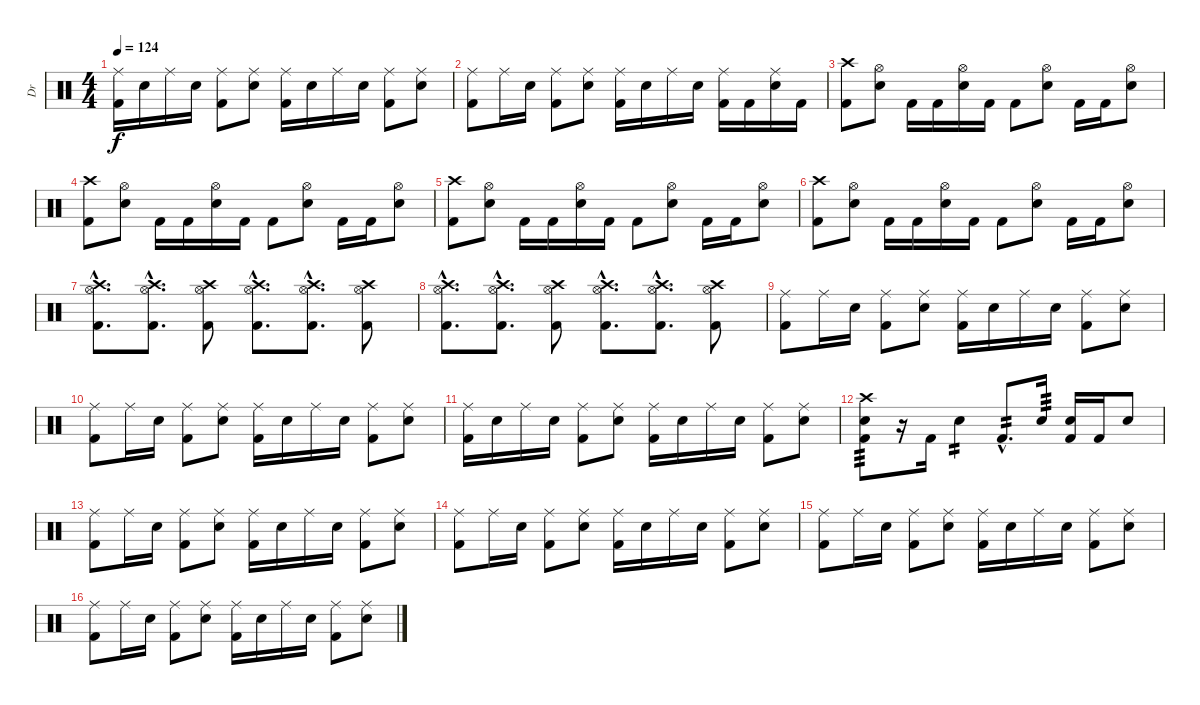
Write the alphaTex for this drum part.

\track ("Dr" "Dr") {instrument percussion}
\staff {score}
\articulation defaults
\ts (4 4)
\tempo 124
\clef neutral
\ks c
("Ride (middle)" "Kick (hit) 2").16{dy f} "Electric Snare (hit)".16 "Ride (middle)".16 "Electric Snare (hit)".16 ("Ride (middle)" "Kick (hit) 2").8 ("Ride (middle)" "Electric Snare (hit)").8 ("Ride (middle)" "Kick (hit) 2").16 "Electric Snare (hit)".16 "Ride (middle)".16 "Electric Snare (hit)".16 ("Ride (middle)" "Kick (hit) 2").8 ("Ride (middle)" "Electric Snare (hit)").8 |
("Ride (middle)" "Kick (hit) 2").8 "Ride (middle)".16 "Electric Snare (hit)".16 ("Ride (middle)" "Kick (hit) 2").8 ("Ride (middle)" "Electric Snare (hit)").8 ("Ride (middle)" "Kick (hit) 2").16 "Electric Snare (hit)".16 "Ride (middle)".16 "Electric Snare (hit)".16 ("Ride (middle)" "Kick (hit) 2").16 "Kick (hit) 2".16 ("Ride (middle)" "Electric Snare (hit)").16 "Kick (hit) 2".16 |
("Crash high (hit)" "Kick (hit) 2").8 ("Hi-Hat (open)" "Electric Snare (hit)").8 "Kick (hit) 2".16 "Kick (hit) 2".16 ("Hi-Hat (open)" "Electric Snare (hit)").16 "Kick (hit) 2".16 "Kick (hit) 2".8 ("Hi-Hat (open)" "Electric Snare (hit)").8 "Kick (hit) 2".16 "Kick (hit) 2".16 ("Hi-Hat (open)" "Electric Snare (hit)").8 |
("Crash high (hit)" "Kick (hit) 2").8 ("Hi-Hat (open)" "Electric Snare (hit)").8 "Kick (hit) 2".16 "Kick (hit) 2".16 ("Hi-Hat (open)" "Electric Snare (hit)").16 "Kick (hit) 2".16 "Kick (hit) 2".8 ("Hi-Hat (open)" "Electric Snare (hit)").8 "Kick (hit) 2".16 "Kick (hit) 2".16 ("Hi-Hat (open)" "Electric Snare (hit)").8 |
("Crash high (hit)" "Kick (hit) 2").8 ("Hi-Hat (open)" "Electric Snare (hit)").8 "Kick (hit) 2".16 "Kick (hit) 2".16 ("Hi-Hat (open)" "Electric Snare (hit)").16 "Kick (hit) 2".16 "Kick (hit) 2".8 ("Hi-Hat (open)" "Electric Snare (hit)").8 "Kick (hit) 2".16 "Kick (hit) 2".16 ("Hi-Hat (open)" "Electric Snare (hit)").8 |
("Crash high (hit)" "Kick (hit) 2").8 ("Hi-Hat (open)" "Electric Snare (hit)").8 "Kick (hit) 2".16 "Kick (hit) 2".16 ("Hi-Hat (open)" "Electric Snare (hit)").16 "Kick (hit) 2".16 "Kick (hit) 2".8 ("Hi-Hat (open)" "Electric Snare (hit)").8 "Kick (hit) 2".16 "Kick (hit) 2".16 ("Hi-Hat (open)" "Electric Snare (hit)").8 |
("Crash high (hit)"{hac} "Hi-Hat (open)"{hac} "Kick (hit) 2"{hac}).8{d} ("Crash high (hit)"{hac} "Hi-Hat (open)"{hac} "Kick (hit) 2"{hac}).8{d} ("Crash high (hit)" "Hi-Hat (open)" "Kick (hit) 2").8 ("Crash high (hit)"{hac} "Hi-Hat (open)"{hac} "Kick (hit) 2"{hac}).8{d} ("Crash high (hit)"{hac} "Hi-Hat (open)"{hac} "Kick (hit) 2"{hac}).8{d} ("Crash high (hit)" "Hi-Hat (open)" "Kick (hit) 2").8 |
("Crash high (hit)"{hac} "Hi-Hat (open)"{hac} "Kick (hit) 2"{hac}).8{d} ("Crash high (hit)"{hac} "Hi-Hat (open)"{hac} "Kick (hit) 2"{hac}).8{d} ("Crash high (hit)" "Hi-Hat (open)" "Kick (hit) 2").8 ("Crash high (hit)"{hac} "Hi-Hat (open)"{hac} "Kick (hit) 2"{hac}).8{d} ("Crash high (hit)"{hac} "Hi-Hat (open)"{hac} "Kick (hit) 2"{hac}).8{d} ("Crash high (hit)" "Hi-Hat (open)" "Kick (hit) 2").8 |
("Ride (middle)" "Kick (hit) 2").8 "Ride (middle)".16 "Electric Snare (hit)".16 ("Ride (middle)" "Kick (hit) 2").8 ("Ride (middle)" "Electric Snare (hit)").8 ("Ride (middle)" "Kick (hit) 2").16 "Electric Snare (hit)".16 "Ride (middle)".16 "Electric Snare (hit)".16 ("Ride (middle)" "Kick (hit) 2").8 ("Ride (middle)" "Electric Snare (hit)").8 |
("Ride (middle)" "Kick (hit) 2").8 "Ride (middle)".16 "Electric Snare (hit)".16 ("Ride (middle)" "Kick (hit) 2").8 ("Ride (middle)" "Electric Snare (hit)").8 ("Ride (middle)" "Kick (hit) 2").16 "Electric Snare (hit)".16 "Ride (middle)".16 "Electric Snare (hit)".16 ("Ride (middle)" "Kick (hit) 2").8 ("Ride (middle)" "Electric Snare (hit)").8 |
("Ride (middle)" "Kick (hit) 2").16 "Electric Snare (hit)".16 "Ride (middle)".16 "Electric Snare (hit)".16 ("Ride (middle)" "Kick (hit) 2").8 ("Ride (middle)" "Electric Snare (hit)").8 ("Ride (middle)" "Kick (hit) 2").16 "Electric Snare (hit)".16 "Ride (middle)".16 "Electric Snare (hit)".16 ("Ride (middle)" "Kick (hit) 2").8 ("Ride (middle)" "Electric Snare (hit)").8 |
("Crash high (hit)" "Electric Snare (hit)" "Kick (hit) 2").8{tp 3} r.16 "Kick (hit) 2".16 "Electric Snare (hit)".4{tp 2} "Kick (hit) 2"{hac}.8{d tp 2} "Electric Snare (hit)".16{tp 3} ("Electric Snare (hit)" "Kick (hit) 2").16 "Kick (hit) 2".16 "Electric Snare (hit)".8 |
("Ride (middle)" "Kick (hit) 2").8 "Ride (middle)".16 "Electric Snare (hit)".16 ("Ride (middle)" "Kick (hit) 2").8 ("Ride (middle)" "Electric Snare (hit)").8 ("Ride (middle)" "Kick (hit) 2").16 "Electric Snare (hit)".16 "Ride (middle)".16 "Electric Snare (hit)".16 ("Ride (middle)" "Kick (hit) 2").8 ("Ride (middle)" "Electric Snare (hit)").8 |
("Ride (middle)" "Kick (hit) 2").8 "Ride (middle)".16 "Electric Snare (hit)".16 ("Ride (middle)" "Kick (hit) 2").8 ("Ride (middle)" "Electric Snare (hit)").8 ("Ride (middle)" "Kick (hit) 2").16 "Electric Snare (hit)".16 "Ride (middle)".16 "Electric Snare (hit)".16 ("Ride (middle)" "Kick (hit) 2").8 ("Ride (middle)" "Electric Snare (hit)").8 |
("Ride (middle)" "Kick (hit) 2").8 "Ride (middle)".16 "Electric Snare (hit)".16 ("Ride (middle)" "Kick (hit) 2").8 ("Ride (middle)" "Electric Snare (hit)").8 ("Ride (middle)" "Kick (hit) 2").16 "Electric Snare (hit)".16 "Ride (middle)".16 "Electric Snare (hit)".16 ("Ride (middle)" "Kick (hit) 2").8 ("Ride (middle)" "Electric Snare (hit)").8 |
("Ride (middle)" "Kick (hit) 2").8 "Ride (middle)".16 "Electric Snare (hit)".16 ("Ride (middle)" "Kick (hit) 2").8 ("Ride (middle)" "Electric Snare (hit)").8 ("Ride (middle)" "Kick (hit) 2").16 "Electric Snare (hit)".16 "Ride (middle)".16 "Electric Snare (hit)".16 ("Ride (middle)" "Kick (hit) 2").8 ("Ride (middle)" "Electric Snare (hit)").8
